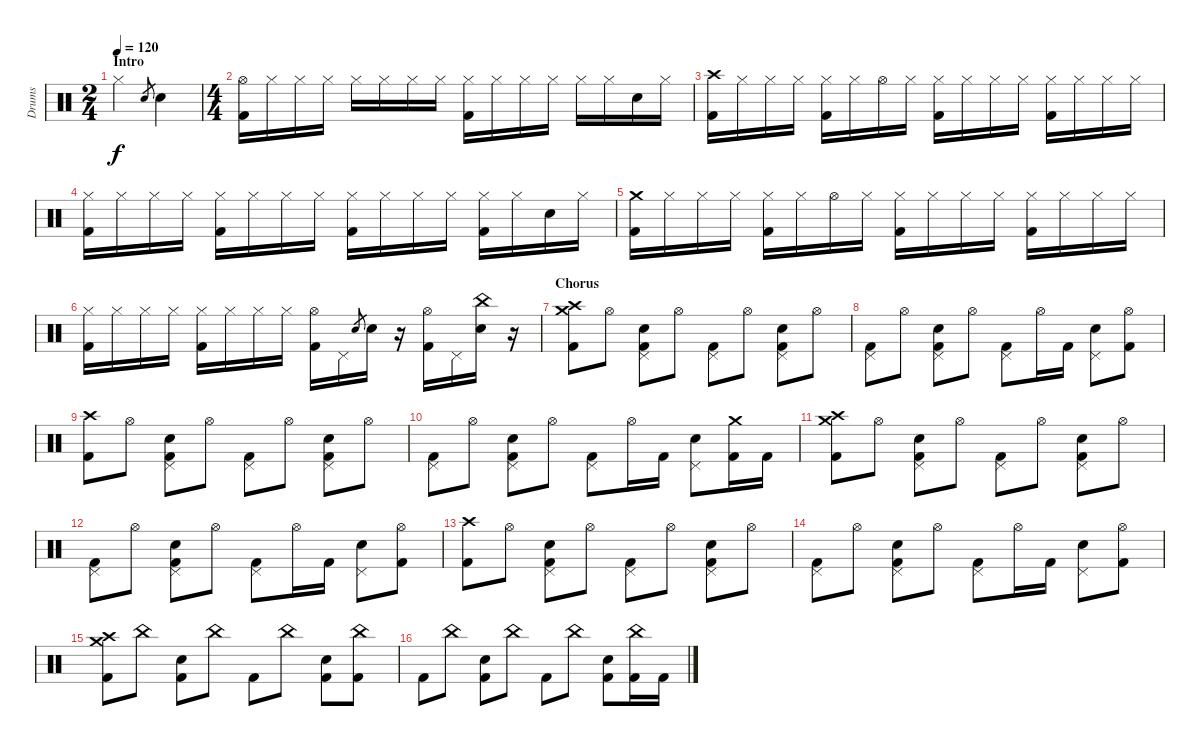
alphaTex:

\track ("Drums" "Drums") {instrument percussion}
\staff {score}
\articulation defaults
\ts (2 4)
\section ("" "Intro")
\tempo 120
\clef neutral
\ks c "Hi-Hat (closed)".4{dy f} "Electric Snare (hit)".8{gr} "Electric Snare (hit)".4
|
\ts (4 4)
("Hi-Hat (open)" "Kick (hit) 2").16 "Hi-Hat (closed)".16 "Hi-Hat (closed)".16 "Hi-Hat (closed)".16 "Hi-Hat (closed)".16 "Hi-Hat (closed)".16 "Hi-Hat (closed)".16 "Hi-Hat (closed)".16 ("Hi-Hat (closed)" "Kick (hit) 2").16 "Hi-Hat (closed)".16 "Hi-Hat (closed)".16 "Hi-Hat (closed)".16 "Hi-Hat (closed)".16 "Hi-Hat (closed)".16 "Electric Snare (hit)".16 "Hi-Hat (closed)".16 |
("Crash high (hit)" "Kick (hit) 2").16 "Hi-Hat (closed)".16 "Hi-Hat (closed)".16 "Hi-Hat (closed)".16 ("Hi-Hat (closed)" "Kick (hit) 2").16 "Hi-Hat (closed)".16 "Hi-Hat (open)".16 "Hi-Hat (closed)".16 ("Hi-Hat (closed)" "Kick (hit) 2").16 "Hi-Hat (closed)".16 "Hi-Hat (closed)".16 "Hi-Hat (closed)".16 ("Hi-Hat (closed)" "Kick (hit) 2").16 "Hi-Hat (closed)".16 "Hi-Hat (closed)".16 "Hi-Hat (closed)".16 |
("Hi-Hat (closed)" "Kick (hit) 2").16 "Hi-Hat (closed)".16 "Hi-Hat (closed)".16 "Hi-Hat (closed)".16 ("Hi-Hat (closed)" "Kick (hit) 2").16 "Hi-Hat (closed)".16 "Hi-Hat (closed)".16 "Hi-Hat (closed)".16 ("Hi-Hat (closed)" "Kick (hit) 2").16 "Hi-Hat (closed)".16 "Hi-Hat (closed)".16 "Hi-Hat (closed)".16 ("Hi-Hat (closed)" "Kick (hit) 2").16 "Hi-Hat (closed)".16 "Electric Snare (hit)".16 "Hi-Hat (closed)".16 |
("Crash medium (hit)" "Kick (hit) 2").16 "Hi-Hat (closed)".16 "Hi-Hat (closed)".16 "Hi-Hat (closed)".16 ("Hi-Hat (closed)" "Kick (hit) 2").16 "Hi-Hat (closed)".16 "Hi-Hat (open)".16 "Hi-Hat (closed)".16 ("Hi-Hat (closed)" "Kick (hit) 2").16 "Hi-Hat (closed)".16 "Hi-Hat (closed)".16 "Hi-Hat (closed)".16 ("Hi-Hat (closed)" "Kick (hit) 2").16 "Hi-Hat (closed)".16 "Hi-Hat (closed)".16 "Hi-Hat (closed)".16 |
("Hi-Hat (closed)" "Kick (hit) 2").16 "Hi-Hat (closed)".16 "Hi-Hat (closed)".16 "Hi-Hat (closed)".16 ("Hi-Hat (closed)" "Kick (hit) 2").16 "Hi-Hat (closed)".16 "Hi-Hat (closed)".16 "Hi-Hat (closed)".16 ("Hi-Hat (open)" "Kick (hit) 2").16 "Pedal Hi-Hat (hit)".16 "Electric Snare (hit)".8{gr} "Electric Snare (hit)".16 r.16 ("Hi-Hat (open)" "Kick (hit) 2").16 "Pedal Hi-Hat (hit)".16 ("China (hit)" "Electric Snare (hit)").16 r.16 |
\section ("" "Chorus")
("Crash high (hit)" "Crash medium (hit)" "Kick (hit) 2").8 "Hi-Hat (open)".8 ("Pedal Hi-Hat (hit)" "Electric Snare (hit)" "Kick (hit) 2").8 "Hi-Hat (open)".8 ("Pedal Hi-Hat (hit)" "Kick (hit) 2").8 "Hi-Hat (open)".8 ("Pedal Hi-Hat (hit)" "Electric Snare (hit)" "Kick (hit) 2").8 "Hi-Hat (open)".8 |
("Pedal Hi-Hat (hit)" "Kick (hit) 2").8 "Hi-Hat (open)".8 ("Pedal Hi-Hat (hit)" "Electric Snare (hit)" "Kick (hit) 2").8 "Hi-Hat (open)".8 ("Pedal Hi-Hat (hit)" "Kick (hit) 2").8 "Hi-Hat (open)".16 "Kick (hit) 2".16 ("Pedal Hi-Hat (hit)" "Electric Snare (hit)").8 ("Hi-Hat (open)" "Kick (hit) 2").8 |
("Crash high (hit)" "Kick (hit) 2").8 "Hi-Hat (open)".8 ("Pedal Hi-Hat (hit)" "Electric Snare (hit)" "Kick (hit) 2").8 "Hi-Hat (open)".8 ("Pedal Hi-Hat (hit)" "Kick (hit) 2").8 "Hi-Hat (open)".8 ("Pedal Hi-Hat (hit)" "Electric Snare (hit)" "Kick (hit) 2").8 "Hi-Hat (open)".8 |
("Pedal Hi-Hat (hit)" "Kick (hit) 2").8 "Hi-Hat (open)".8 ("Pedal Hi-Hat (hit)" "Electric Snare (hit)" "Kick (hit) 2").8 "Hi-Hat (open)".8 ("Pedal Hi-Hat (hit)" "Kick (hit) 2").8 "Hi-Hat (open)".16 "Kick (hit) 2".16 ("Pedal Hi-Hat (hit)" "Electric Snare (hit)").8 ("Crash medium (hit)" "Kick (hit) 2").16 "Kick (hit) 2".16 |
("Crash high (hit)" "Crash medium (hit)" "Kick (hit) 2").8 "Hi-Hat (open)".8 ("Pedal Hi-Hat (hit)" "Electric Snare (hit)" "Kick (hit) 2").8 "Hi-Hat (open)".8 ("Pedal Hi-Hat (hit)" "Kick (hit) 2").8 "Hi-Hat (open)".8 ("Pedal Hi-Hat (hit)" "Electric Snare (hit)" "Kick (hit) 2").8 "Hi-Hat (open)".8 |
("Pedal Hi-Hat (hit)" "Kick (hit) 2").8 "Hi-Hat (open)".8 ("Pedal Hi-Hat (hit)" "Electric Snare (hit)" "Kick (hit) 2").8 "Hi-Hat (open)".8 ("Pedal Hi-Hat (hit)" "Kick (hit) 2").8 "Hi-Hat (open)".16 "Kick (hit) 2".16 ("Pedal Hi-Hat (hit)" "Electric Snare (hit)").8 ("Hi-Hat (open)" "Kick (hit) 2").8 |
("Crash high (hit)" "Kick (hit) 2").8 "Hi-Hat (open)".8 ("Pedal Hi-Hat (hit)" "Electric Snare (hit)" "Kick (hit) 2").8 "Hi-Hat (open)".8 ("Pedal Hi-Hat (hit)" "Kick (hit) 2").8 "Hi-Hat (open)".8 ("Pedal Hi-Hat (hit)" "Electric Snare (hit)" "Kick (hit) 2").8 "Hi-Hat (open)".8 |
("Pedal Hi-Hat (hit)" "Kick (hit) 2").8 "Hi-Hat (open)".8 ("Pedal Hi-Hat (hit)" "Electric Snare (hit)" "Kick (hit) 2").8 "Hi-Hat (open)".8 ("Pedal Hi-Hat (hit)" "Kick (hit) 2").8 "Hi-Hat (open)".16 "Kick (hit) 2".16 ("Pedal Hi-Hat (hit)" "Electric Snare (hit)").8 ("Hi-Hat (open)" "Kick (hit) 2").8 |
("Crash high (hit)" "Crash medium (hit)" "Kick (hit) 2").8 "China (hit)".8 ("Electric Snare (hit)" "Kick (hit) 2").8 "China (hit)".8 "Kick (hit) 2".8 "China (hit)".8 ("Electric Snare (hit)" "Kick (hit) 2").8 ("China (hit)" "Kick (hit) 2").8 |
"Kick (hit) 2".8 "China (hit)".8 ("Electric Snare (hit)" "Kick (hit) 2").8 "China (hit)".8 "Kick (hit) 2".8 "China (hit)".8 ("Electric Snare (hit)" "Kick (hit) 2").8 ("China (hit)" "Kick (hit) 2").16 "Kick (hit) 2".16
